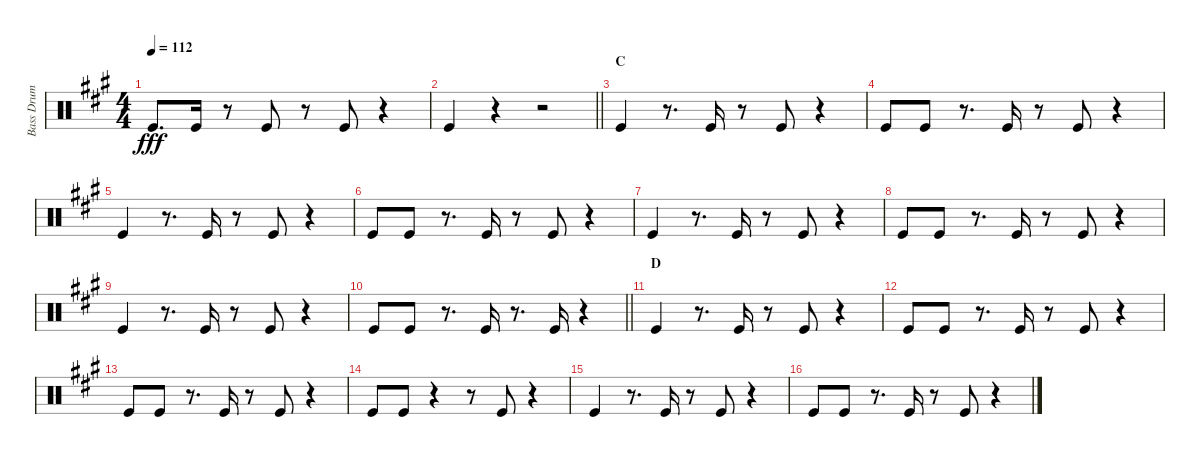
\track ("Bass Drum" "Bass Drum") {instrument percussion}
\staff {score}
\articulation defaults
\ts (4 4)
\tempo 112
\clef neutral
\ks a "Kick (hit)".8{d dy fff} "Kick (hit)".16
r.8 "Kick (hit)".8 r.8 "Kick (hit)".8 r.4 |
\barLineRight lightlight "Kick (hit)".4
r.4 r.2 |
\section ("" "C")
"Kick (hit)".4 r.8{d} "Kick (hit)".16 r.8 "Kick (hit)".8 r.4 |
"Kick (hit)".8 "Kick (hit)".8 r.8{d} "Kick (hit)".16 r.8 "Kick (hit)".8 r.4 |
"Kick (hit)".4 r.8{d} "Kick (hit)".16 r.8 "Kick (hit)".8 r.4 |
"Kick (hit)".8 "Kick (hit)".8 r.8{d} "Kick (hit)".16 r.8 "Kick (hit)".8 r.4 |
"Kick (hit)".4 r.8{d} "Kick (hit)".16 r.8 "Kick (hit)".8 r.4 |
"Kick (hit)".8 "Kick (hit)".8 r.8{d} "Kick (hit)".16 r.8 "Kick (hit)".8 r.4 |
"Kick (hit)".4 r.8{d} "Kick (hit)".16 r.8 "Kick (hit)".8 r.4 |
\barLineRight lightlight "Kick (hit)".8 "Kick (hit)".8
r.8{d} "Kick (hit)".16 r.8{d} "Kick (hit)".16 r.4 |
\section ("" "D")
"Kick (hit)".4 r.8{d} "Kick (hit)".16 r.8 "Kick (hit)".8 r.4 |
"Kick (hit)".8 "Kick (hit)".8 r.8{d} "Kick (hit)".16 r.8 "Kick (hit)".8 r.4 |
"Kick (hit)".8 "Kick (hit)".8 r.8{d} "Kick (hit)".16 r.8 "Kick (hit)".8 r.4 |
"Kick (hit)".8 "Kick (hit)".8 r.4 r.8 "Kick (hit)".8 r.4 |
"Kick (hit)".4 r.8{d} "Kick (hit)".16 r.8 "Kick (hit)".8 r.4 |
"Kick (hit)".8 "Kick (hit)".8 r.8{d} "Kick (hit)".16 r.8 "Kick (hit)".8 r.4
